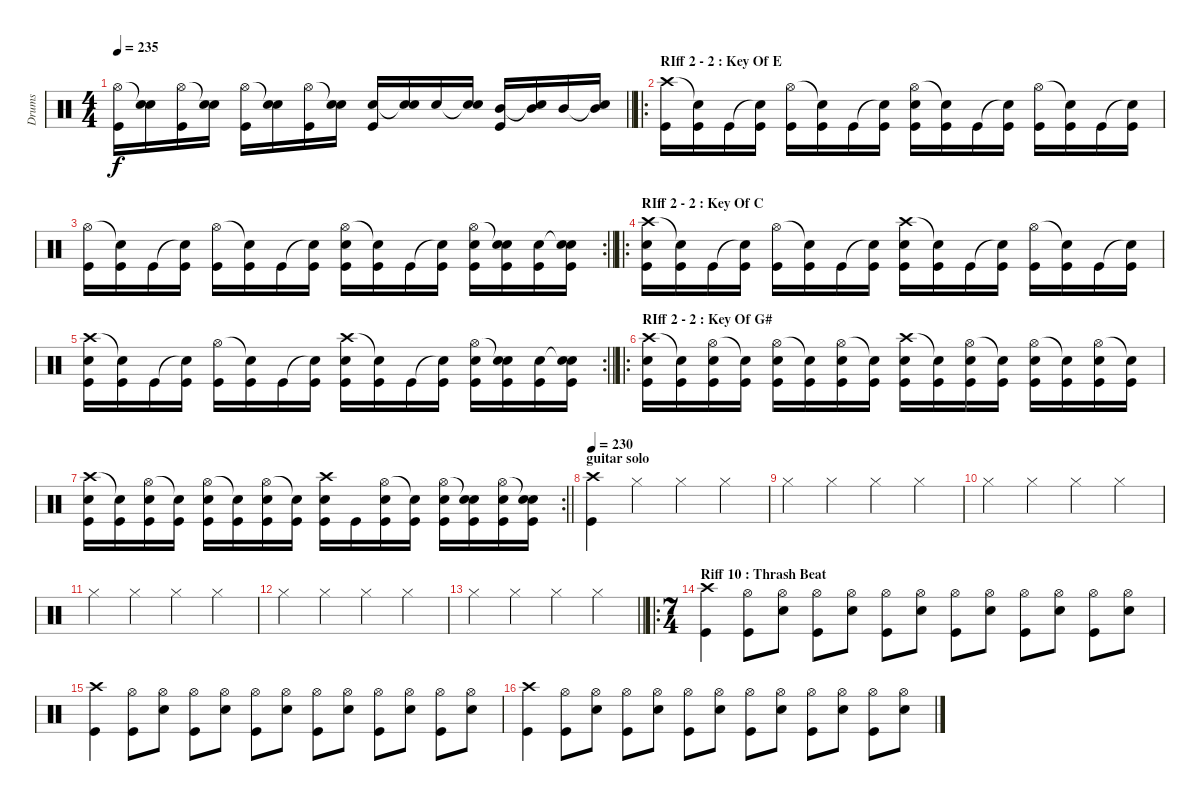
\track ("Drums" "Drums") {instrument percussion}
\staff {score}
\articulation defaults
\ts (4 4)
\tempo 235
\clef neutral
\barLineRight lightlight
\ks c
("Hi-Hat (open)" "Kick (hit)").16{dy f} ("Snare (hit)"{t} "Electric Snare (hit)").16 ("Hi-Hat (open)" "Kick (hit)").16 ("Snare (hit)"{t} "Electric Snare (hit)").16 ("Hi-Hat (open)" "Kick (hit)").16 ("Snare (hit)"{t} "Electric Snare (hit)").16 ("Hi-Hat (open)" "Kick (hit)").16 ("Snare (hit)"{t} "Electric Snare (hit)").16 ("Electric Snare (hit)" "Kick (hit)").16 ("Snare (hit)"{t} "Electric Snare (hit)").16 "Electric Snare (hit)".16 ("Snare (hit)"{t} "Electric Snare (hit)").16 ("Mid Tom (hit)" "Kick (hit)").16 ("Snare (hit)"{t} "Mid Tom (hit)").16 "Mid Tom (hit)".16 ("Snare (hit)"{t} "Mid Tom (hit)").16 |
\ro
\section ("" "RIff 2 - 2 : Key Of E")
("Crash high (hit)" "Kick (hit)").16 ("Snare (hit)"{t} "Kick (hit)").16 "Kick (hit)".16 ("Snare (hit)"{t} "Kick (hit)").16 ("Hi-Hat (open)" "Kick (hit)").16 ("Snare (hit)"{t} "Kick (hit)").16 "Kick (hit)".16 ("Snare (hit)"{t} "Kick (hit)").16 ("Hi-Hat (open)" "Electric Snare (hit)" "Kick (hit)").16 ("Snare (hit)"{t} "Kick (hit)").16 "Kick (hit)".16 ("Snare (hit)"{t} "Kick (hit)").16 ("Hi-Hat (open)" "Kick (hit)").16 ("Snare (hit)"{t} "Kick (hit)").16 "Kick (hit)".16 ("Snare (hit)"{t} "Kick (hit)").16 |
\rc 2
\barLineRight lightlight
("Hi-Hat (open)" "Kick (hit)").16 ("Snare (hit)"{t} "Kick (hit)").16 "Kick (hit)".16 ("Snare (hit)"{t} "Kick (hit)").16 ("Hi-Hat (open)" "Kick (hit)").16 ("Snare (hit)"{t} "Kick (hit)").16 "Kick (hit)".16 ("Snare (hit)"{t} "Kick (hit)").16 ("Hi-Hat (open)" "Electric Snare (hit)" "Kick (hit)").16 ("Snare (hit)"{t} "Kick (hit)").16 "Kick (hit)".16 ("Snare (hit)"{t} "Kick (hit)").16 ("Hi-Hat (open)" "Electric Snare (hit)" "Kick (hit)").16 ("Snare (hit)"{t} "Electric Snare (hit)" "Kick (hit)").16 ("Electric Snare (hit)" "Kick (hit)").16 ("Snare (hit)"{t} "Electric Snare (hit)" "Kick (hit)").16 |
\ro
\section ("" "RIff 2 - 2 : Key Of C")
("Crash high (hit)" "Electric Snare (hit)" "Kick (hit)").16 ("Snare (hit)"{t} "Kick (hit)").16 "Kick (hit)".16 ("Snare (hit)"{t} "Kick (hit)").16 ("Hi-Hat (open)" "Kick (hit)").16 ("Snare (hit)"{t} "Kick (hit)").16 "Kick (hit)".16 ("Snare (hit)"{t} "Kick (hit)").16 ("Crash high (hit)" "Electric Snare (hit)" "Kick (hit)").16 ("Snare (hit)"{t} "Kick (hit)").16 "Kick (hit)".16 ("Snare (hit)"{t} "Kick (hit)").16 ("Hi-Hat (open)" "Kick (hit)").16 ("Snare (hit)"{t} "Kick (hit)").16 "Kick (hit)".16 ("Snare (hit)"{t} "Kick (hit)").16 |
\rc 2
\barLineRight lightlight
("Crash high (hit)" "Electric Snare (hit)" "Kick (hit)").16 ("Snare (hit)"{t} "Kick (hit)").16 "Kick (hit)".16 ("Snare (hit)"{t} "Kick (hit)").16 ("Hi-Hat (open)" "Kick (hit)").16 ("Snare (hit)"{t} "Kick (hit)").16 "Kick (hit)".16 ("Snare (hit)"{t} "Kick (hit)").16 ("Crash high (hit)" "Electric Snare (hit)" "Kick (hit)").16 ("Snare (hit)"{t} "Kick (hit)").16 "Kick (hit)".16 ("Snare (hit)"{t} "Kick (hit)").16 ("Hi-Hat (open)" "Electric Snare (hit)" "Kick (hit)").16 ("Snare (hit)"{t} "Electric Snare (hit)" "Kick (hit)").16 ("Electric Snare (hit)" "Kick (hit)").16 ("Snare (hit)"{t} "Electric Snare (hit)" "Kick (hit)").16 |
\ro
\section ("" "RIff 2 - 2 : Key Of G#")
("Crash high (hit)" "Electric Snare (hit)" "Kick (hit)").16 ("Snare (hit)"{t} "Kick (hit)").16 ("Hi-Hat (open)" "Electric Snare (hit)" "Kick (hit)").16 ("Snare (hit)"{t} "Kick (hit)").16 ("Hi-Hat (open)" "Electric Snare (hit)" "Kick (hit)").16 ("Snare (hit)"{t} "Kick (hit)").16 ("Hi-Hat (open)" "Electric Snare (hit)" "Kick (hit)").16 ("Snare (hit)"{t} "Kick (hit)").16 ("Crash high (hit)" "Electric Snare (hit)" "Kick (hit)").16 ("Snare (hit)"{t} "Kick (hit)").16 ("Hi-Hat (open)" "Electric Snare (hit)" "Kick (hit)").16 ("Snare (hit)"{t} "Kick (hit)").16 ("Hi-Hat (open)" "Electric Snare (hit)" "Kick (hit)").16 ("Snare (hit)"{t} "Kick (hit)").16 ("Hi-Hat (open)" "Electric Snare (hit)" "Kick (hit)").16 ("Snare (hit)"{t} "Kick (hit)").16 |
\rc 2
\barLineRight lightlight
("Crash high (hit)" "Electric Snare (hit)" "Kick (hit)").16 ("Snare (hit)"{t} "Kick (hit)").16 ("Hi-Hat (open)" "Electric Snare (hit)" "Kick (hit)").16 ("Snare (hit)"{t} "Kick (hit)").16 ("Hi-Hat (open)" "Electric Snare (hit)" "Kick (hit)").16 ("Snare (hit)"{t} "Kick (hit)").16 ("Hi-Hat (open)" "Electric Snare (hit)" "Kick (hit)").16 ("Snare (hit)"{t} "Kick (hit)").16 ("Crash high (hit)" "Electric Snare (hit)" "Kick (hit)").16 "Kick (hit)".16 ("Hi-Hat (open)" "Electric Snare (hit)" "Kick (hit)").16 ("Snare (hit)"{t} "Kick (hit)").16 ("Hi-Hat (open)" "Electric Snare (hit)" "Kick (hit)").16 ("Snare (hit)"{t} "Electric Snare (hit)" "Kick (hit)").16 ("Hi-Hat (open)" "Electric Snare (hit)" "Kick (hit)").16 ("Snare (hit)"{t} "Electric Snare (hit)" "Kick (hit)").16 |
\section ("" "guitar solo")
\tempo 230
("Crash high (hit)" "Kick (hit)").4 "Hi-Hat (closed)".4 "Hi-Hat (closed)".4 "Hi-Hat (closed)".4 |
"Hi-Hat (closed)".4 "Hi-Hat (closed)".4 "Hi-Hat (closed)".4 "Hi-Hat (closed)".4 |
"Hi-Hat (closed)".4 "Hi-Hat (closed)".4 "Hi-Hat (closed)".4 "Hi-Hat (closed)".4 |
"Hi-Hat (closed)".4 "Hi-Hat (closed)".4 "Hi-Hat (closed)".4 "Hi-Hat (closed)".4 |
"Hi-Hat (closed)".4 "Hi-Hat (closed)".4 "Hi-Hat (closed)".4 "Hi-Hat (closed)".4 |
\barLineRight lightlight "Hi-Hat (closed)".4 "Hi-Hat (closed)".4 "Hi-Hat (closed)".4 "Hi-Hat (closed)".4
|
\ro
\ts (7 4)
\section ("" "Riff 10 : Thrash Beat")
("Crash high (hit)" "Kick (hit)").4 ("Hi-Hat (open)" "Kick (hit)").8 ("Hi-Hat (open)" "Electric Snare (hit)").8 ("Hi-Hat (open)" "Kick (hit)").8 ("Hi-Hat (open)" "Electric Snare (hit)").8 ("Hi-Hat (open)" "Kick (hit)").8 ("Hi-Hat (open)" "Electric Snare (hit)").8 ("Hi-Hat (open)" "Kick (hit)").8 ("Hi-Hat (open)" "Electric Snare (hit)").8 ("Hi-Hat (open)" "Kick (hit)").8 ("Hi-Hat (open)" "Electric Snare (hit)").8 ("Hi-Hat (open)" "Kick (hit)").8 ("Hi-Hat (open)" "Electric Snare (hit)").8 |
("Crash high (hit)" "Kick (hit)").4 ("Hi-Hat (open)" "Kick (hit)").8 ("Hi-Hat (open)" "Electric Snare (hit)").8 ("Hi-Hat (open)" "Kick (hit)").8 ("Hi-Hat (open)" "Electric Snare (hit)").8 ("Hi-Hat (open)" "Kick (hit)").8 ("Hi-Hat (open)" "Electric Snare (hit)").8 ("Hi-Hat (open)" "Kick (hit)").8 ("Hi-Hat (open)" "Electric Snare (hit)").8 ("Hi-Hat (open)" "Kick (hit)").8 ("Hi-Hat (open)" "Electric Snare (hit)").8 ("Hi-Hat (open)" "Kick (hit)").8 ("Hi-Hat (open)" "Electric Snare (hit)").8 |
("Crash high (hit)" "Kick (hit)").4 ("Hi-Hat (open)" "Kick (hit)").8 ("Hi-Hat (open)" "Electric Snare (hit)").8 ("Hi-Hat (open)" "Kick (hit)").8 ("Hi-Hat (open)" "Electric Snare (hit)").8 ("Hi-Hat (open)" "Kick (hit)").8 ("Hi-Hat (open)" "Electric Snare (hit)").8 ("Hi-Hat (open)" "Kick (hit)").8 ("Hi-Hat (open)" "Electric Snare (hit)").8 ("Hi-Hat (open)" "Kick (hit)").8 ("Hi-Hat (open)" "Electric Snare (hit)").8 ("Hi-Hat (open)" "Kick (hit)").8 ("Hi-Hat (open)" "Electric Snare (hit)").8
